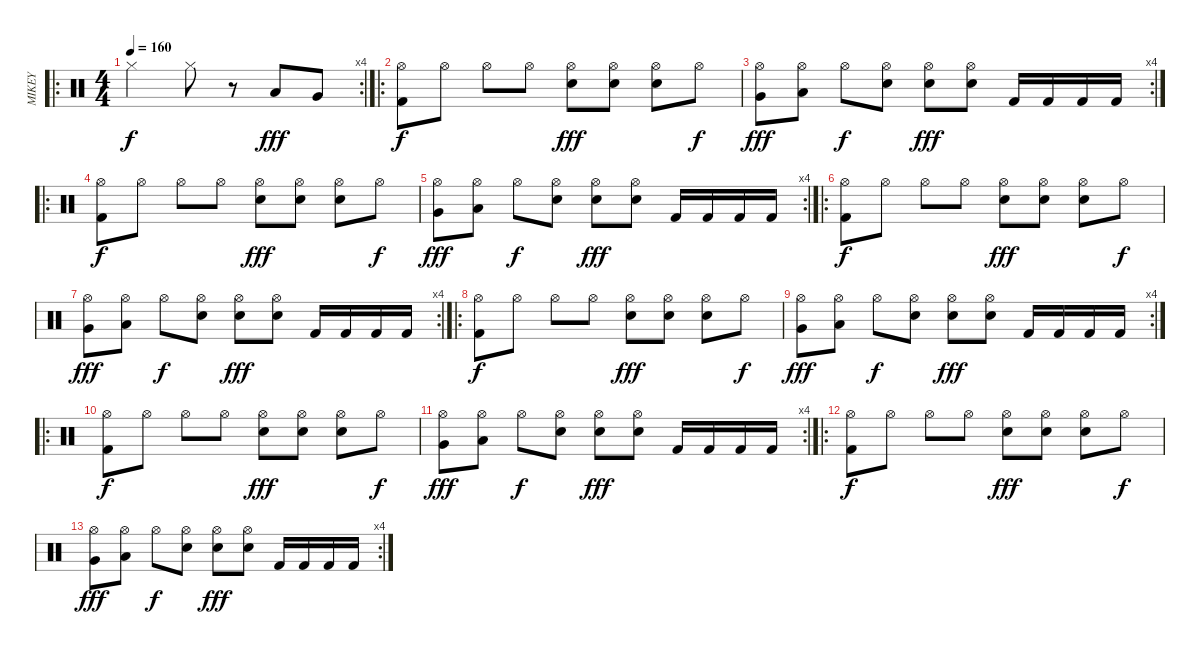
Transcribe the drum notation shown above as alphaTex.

\track ("MIKEY" "MIKEY") {instrument percussion}
\staff {score}
\articulation defaults
\ro
\rc 4
\ts (4 4)
\tempo 160
\clef neutral
\ks c "Hi-Hat (closed)".2{dy f} "Hi-Hat (closed)".8
r.8 "Low Tom (hit)".8{dy fff} "Very Low Tom (hit)".8 |
\ro
("Kick (hit) 2" "Hi-Hat (open)").8{dy f} "Hi-Hat (open)".8 "Hi-Hat (open)".8 "Hi-Hat (open)".8 ("Snare (hit) 2" "Hi-Hat (open)").8{dy fff} ("Snare (hit) 2" "Hi-Hat (open)").8 ("Snare (hit) 2" "Hi-Hat (open)").8 "Hi-Hat (open)".8{dy f} |
\rc 4
("Very Low Tom (hit)" "Hi-Hat (open)").8{dy fff} ("Low Tom (hit)" "Hi-Hat (open)").8 "Hi-Hat (open)".8{dy f} ("Snare (hit) 2" "Hi-Hat (open)").8 ("Snare (hit) 2" "Hi-Hat (open)").8{dy fff} ("Snare (hit) 2" "Hi-Hat (open)").8 "Kick (hit) 2".16 "Kick (hit) 2".16 "Kick (hit) 2".16 "Kick (hit) 2".16 |
\ro
("Kick (hit) 2" "Hi-Hat (open)").8{dy f} "Hi-Hat (open)".8 "Hi-Hat (open)".8 "Hi-Hat (open)".8 ("Snare (hit) 2" "Hi-Hat (open)").8{dy fff} ("Snare (hit) 2" "Hi-Hat (open)").8 ("Snare (hit) 2" "Hi-Hat (open)").8 "Hi-Hat (open)".8{dy f} |
\rc 4
("Very Low Tom (hit)" "Hi-Hat (open)").8{dy fff} ("Low Tom (hit)" "Hi-Hat (open)").8 "Hi-Hat (open)".8{dy f} ("Snare (hit) 2" "Hi-Hat (open)").8 ("Snare (hit) 2" "Hi-Hat (open)").8{dy fff} ("Snare (hit) 2" "Hi-Hat (open)").8 "Kick (hit) 2".16 "Kick (hit) 2".16 "Kick (hit) 2".16 "Kick (hit) 2".16 |
\ro
("Kick (hit) 2" "Hi-Hat (open)").8{dy f} "Hi-Hat (open)".8 "Hi-Hat (open)".8 "Hi-Hat (open)".8 ("Snare (hit) 2" "Hi-Hat (open)").8{dy fff} ("Snare (hit) 2" "Hi-Hat (open)").8 ("Snare (hit) 2" "Hi-Hat (open)").8 "Hi-Hat (open)".8{dy f} |
\rc 4
("Very Low Tom (hit)" "Hi-Hat (open)").8{dy fff} ("Low Tom (hit)" "Hi-Hat (open)").8 "Hi-Hat (open)".8{dy f} ("Snare (hit) 2" "Hi-Hat (open)").8 ("Snare (hit) 2" "Hi-Hat (open)").8{dy fff} ("Snare (hit) 2" "Hi-Hat (open)").8 "Kick (hit) 2".16 "Kick (hit) 2".16 "Kick (hit) 2".16 "Kick (hit) 2".16 |
\ro
("Kick (hit) 2" "Hi-Hat (open)").8{dy f} "Hi-Hat (open)".8 "Hi-Hat (open)".8 "Hi-Hat (open)".8 ("Snare (hit) 2" "Hi-Hat (open)").8{dy fff} ("Snare (hit) 2" "Hi-Hat (open)").8 ("Snare (hit) 2" "Hi-Hat (open)").8 "Hi-Hat (open)".8{dy f} |
\rc 4
("Very Low Tom (hit)" "Hi-Hat (open)").8{dy fff} ("Low Tom (hit)" "Hi-Hat (open)").8 "Hi-Hat (open)".8{dy f} ("Snare (hit) 2" "Hi-Hat (open)").8 ("Snare (hit) 2" "Hi-Hat (open)").8{dy fff} ("Snare (hit) 2" "Hi-Hat (open)").8 "Kick (hit) 2".16 "Kick (hit) 2".16 "Kick (hit) 2".16 "Kick (hit) 2".16 |
\ro
("Kick (hit) 2" "Hi-Hat (open)").8{dy f} "Hi-Hat (open)".8 "Hi-Hat (open)".8 "Hi-Hat (open)".8 ("Snare (hit) 2" "Hi-Hat (open)").8{dy fff} ("Snare (hit) 2" "Hi-Hat (open)").8 ("Snare (hit) 2" "Hi-Hat (open)").8 "Hi-Hat (open)".8{dy f} |
\rc 4
("Very Low Tom (hit)" "Hi-Hat (open)").8{dy fff} ("Low Tom (hit)" "Hi-Hat (open)").8 "Hi-Hat (open)".8{dy f} ("Snare (hit) 2" "Hi-Hat (open)").8 ("Snare (hit) 2" "Hi-Hat (open)").8{dy fff} ("Snare (hit) 2" "Hi-Hat (open)").8 "Kick (hit) 2".16 "Kick (hit) 2".16 "Kick (hit) 2".16 "Kick (hit) 2".16 |
\ro
("Kick (hit) 2" "Hi-Hat (open)").8{dy f} "Hi-Hat (open)".8 "Hi-Hat (open)".8 "Hi-Hat (open)".8 ("Snare (hit) 2" "Hi-Hat (open)").8{dy fff} ("Snare (hit) 2" "Hi-Hat (open)").8 ("Snare (hit) 2" "Hi-Hat (open)").8 "Hi-Hat (open)".8{dy f} |
\rc 4
("Very Low Tom (hit)" "Hi-Hat (open)").8{dy fff} ("Low Tom (hit)" "Hi-Hat (open)").8 "Hi-Hat (open)".8{dy f} ("Snare (hit) 2" "Hi-Hat (open)").8 ("Snare (hit) 2" "Hi-Hat (open)").8{dy fff} ("Snare (hit) 2" "Hi-Hat (open)").8 "Kick (hit) 2".16 "Kick (hit) 2".16 "Kick (hit) 2".16 "Kick (hit) 2".16
